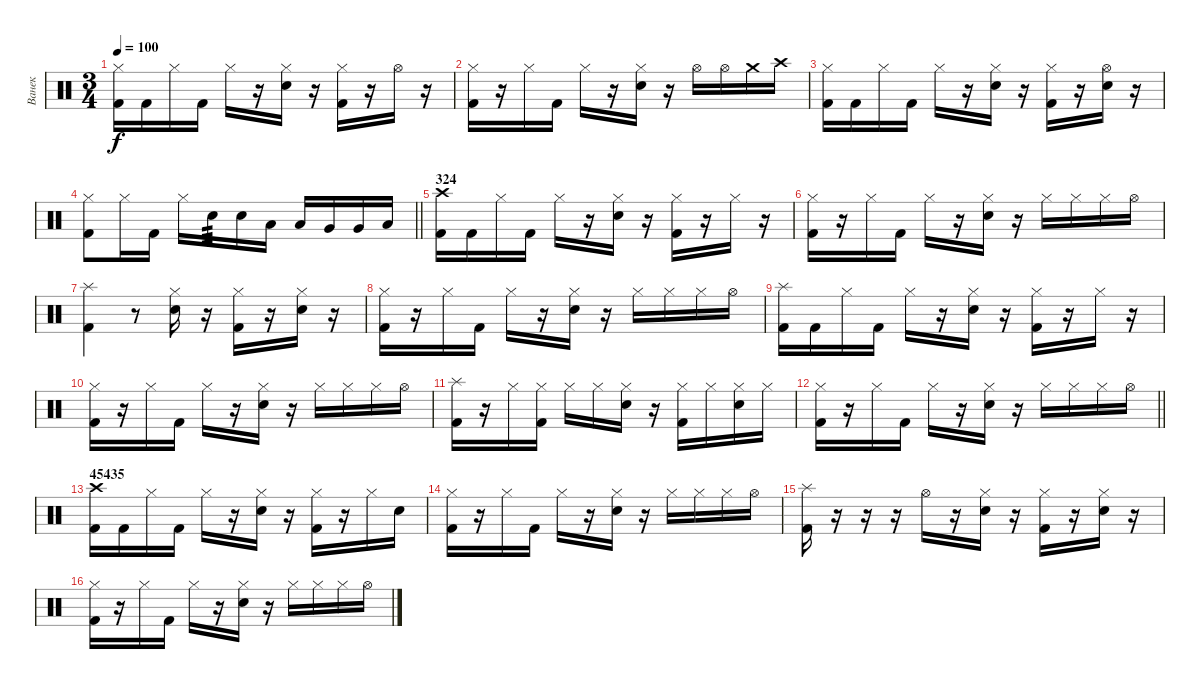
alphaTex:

\track ("Ванек" "Ванек") {instrument percussion}
\staff {score}
\articulation defaults
\ts (3 4)
\tempo 100
\clef neutral
\ks c
("Hi-Hat (closed)" "Kick (hit) 2").16{dy f} "Kick (hit) 2".16 "Hi-Hat (closed)".16 "Kick (hit) 2".16 "Hi-Hat (closed)".16 r.16 ("Hi-Hat (closed)" "Snare (hit) 2").16 r.16 ("Hi-Hat (closed)" "Kick (hit) 2").16 r.16 "Hi-Hat (open)".16 r.16 |
("Hi-Hat (closed)" "Kick (hit) 2").16 r.16 "Hi-Hat (closed)".16 "Kick (hit) 2".16 "Hi-Hat (closed)".16 r.16 ("Hi-Hat (closed)" "Snare (hit) 2").16 r.16 "Hi-Hat (open)".16 "Hi-Hat (open)".16 "Crash medium (hit)".16 "Crash high (hit)".16 |
("Hi-Hat (closed)" "Kick (hit) 2").16 "Kick (hit) 2".16 "Hi-Hat (closed)".16 "Kick (hit) 2".16 "Hi-Hat (closed)".16 r.16 ("Hi-Hat (closed)" "Snare (hit) 2").16 r.16 ("Hi-Hat (closed)" "Kick (hit) 2").16 r.16 ("Hi-Hat (open)" "Snare (hit) 2").16 r.16 |
\barLineRight lightlight
("Hi-Hat (closed)" "Kick (hit) 2").8 "Hi-Hat (closed)".16 "Kick (hit) 2".16 "Hi-Hat (closed)".16 "Snare (hit) 2".16{tp 3} "Snare (hit) 2".16 "Low Floor Tom (hit)".16 "Low Floor Tom (hit)".16 "Very Low Tom (hit)".16 "Very Low Tom (hit)".16 "Low Tom (hit)".16 |
\section ("" "324")
("Crash high (hit)" "Kick (hit) 2").16 "Kick (hit) 2".16 "Hi-Hat (closed)".16 "Kick (hit) 2".16 "Hi-Hat (closed)".16 r.16 ("Hi-Hat (closed)" "Snare (hit) 2").16 r.16 ("Hi-Hat (closed)" "Kick (hit) 2").16 r.16 "Hi-Hat (closed)".16 r.16 |
("Hi-Hat (closed)" "Kick (hit) 2").16 r.16 "Hi-Hat (closed)".16 "Kick (hit) 2".16 "Hi-Hat (closed)".16 r.16 ("Hi-Hat (closed)" "Snare (hit) 2").16 r.16 "Hi-Hat (closed)".16 "Hi-Hat (closed)".16 "Hi-Hat (closed)".16 "Hi-Hat (open)".16 |
("Splash (hit)" "Kick (hit) 2").4 r.8 ("Hi-Hat (closed)" "Snare (hit) 2").16 r.16 ("Hi-Hat (closed)" "Kick (hit) 2").16 r.16 ("Hi-Hat (closed)" "Snare (hit) 2").16 r.16 |
("Hi-Hat (closed)" "Kick (hit) 2").16 r.16 "Hi-Hat (closed)".16 "Kick (hit) 2".16 "Hi-Hat (closed)".16 r.16 ("Hi-Hat (closed)" "Snare (hit) 2").16 r.16 "Hi-Hat (closed)".16 "Hi-Hat (closed)".16 "Hi-Hat (closed)".16 "Hi-Hat (open)".16 |
("Splash (hit)" "Kick (hit) 2").16 "Kick (hit) 2".16 "Hi-Hat (closed)".16 "Kick (hit) 2".16 "Hi-Hat (closed)".16 r.16 ("Hi-Hat (closed)" "Snare (hit) 2").16 r.16 ("Hi-Hat (closed)" "Kick (hit) 2").16 r.16 "Hi-Hat (closed)".16 r.16 |
("Hi-Hat (closed)" "Kick (hit) 2").16 r.16 "Hi-Hat (closed)".16 "Kick (hit) 2".16 "Hi-Hat (closed)".16 r.16 ("Hi-Hat (closed)" "Snare (hit) 2").16 r.16 "Hi-Hat (closed)".16 "Hi-Hat (closed)".16 "Hi-Hat (closed)".16 "Hi-Hat (open)".16 |
("Splash (hit)" "Kick (hit) 2").16 r.16 "Hi-Hat (closed)".16 ("Hi-Hat (closed)" "Kick (hit) 2").16 "Hi-Hat (closed)".16 "Hi-Hat (closed)".16 ("Hi-Hat (closed)" "Snare (hit) 2").16 r.16 ("Hi-Hat (closed)" "Kick (hit) 2").16 "Hi-Hat (closed)".16 ("Hi-Hat (closed)" "Snare (hit) 2").16 "Hi-Hat (closed)".16 |
\barLineRight lightlight
("Hi-Hat (closed)" "Kick (hit) 2").16 r.16 "Hi-Hat (closed)".16 "Kick (hit) 2".16 "Hi-Hat (closed)".16 r.16 ("Hi-Hat (closed)" "Snare (hit) 2").16 r.16 "Hi-Hat (closed)".16 "Hi-Hat (closed)".16 "Hi-Hat (closed)".16 "Hi-Hat (open)".16 |
\section ("" "45435")
("Crash high (hit)" "Kick (hit) 2").16 "Kick (hit) 2".16 "Hi-Hat (closed)".16 "Kick (hit) 2".16 "Hi-Hat (closed)".16 r.16 ("Hi-Hat (closed)" "Snare (hit) 2").16 r.16 ("Hi-Hat (closed)" "Kick (hit) 2").16 r.16 "Hi-Hat (closed)".16 "Snare (hit) 2".16 |
("Hi-Hat (closed)" "Kick (hit) 2").16 r.16 "Hi-Hat (closed)".16 "Kick (hit) 2".16 "Hi-Hat (closed)".16 r.16 ("Hi-Hat (closed)" "Snare (hit) 2").16 r.16 "Hi-Hat (closed)".16 "Hi-Hat (closed)".16 "Hi-Hat (closed)".16 "Hi-Hat (open)".16 |
("Splash (hit)" "Kick (hit) 2").16 r.16 r.16 r.16 "Hi-Hat (open)".16 r.16 ("Hi-Hat (closed)" "Snare (hit) 2").16 r.16 ("Hi-Hat (closed)" "Kick (hit) 2").16 r.16 ("Hi-Hat (closed)" "Snare (hit) 2").16 r.16 |
("Hi-Hat (closed)" "Kick (hit) 2").16 r.16 "Hi-Hat (closed)".16 "Kick (hit) 2".16 "Hi-Hat (closed)".16 r.16 ("Hi-Hat (closed)" "Snare (hit) 2").16 r.16 "Hi-Hat (closed)".16 "Hi-Hat (closed)".16 "Hi-Hat (closed)".16 "Hi-Hat (open)".16
